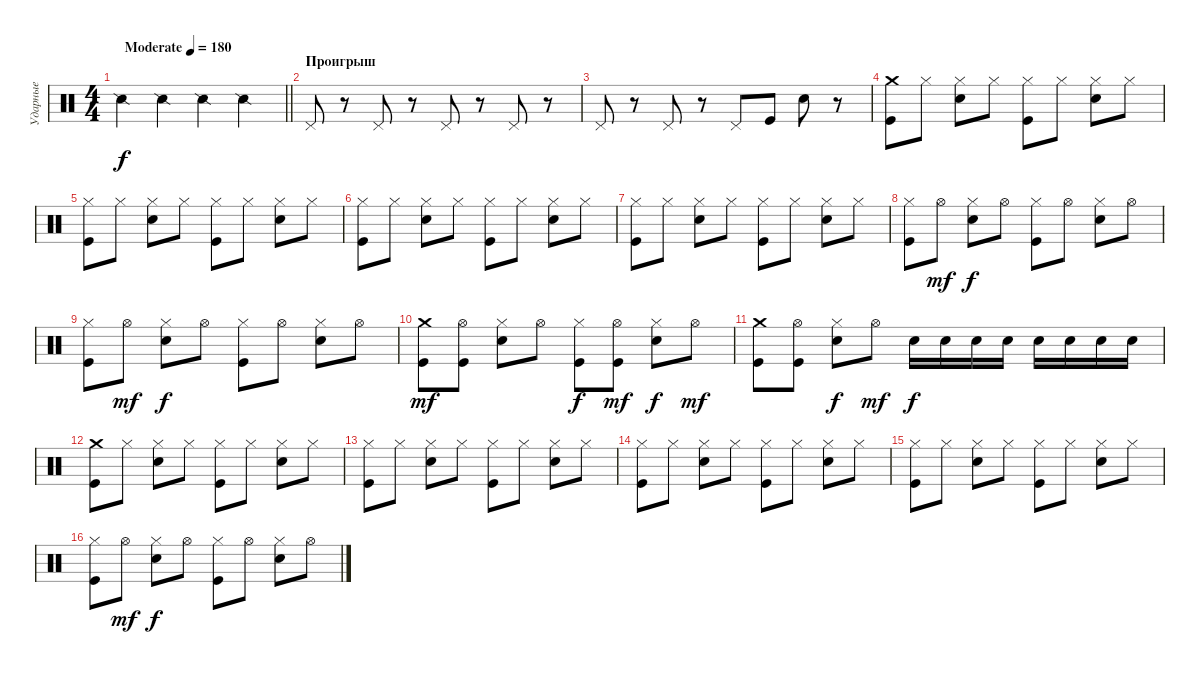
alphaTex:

\track ("Ударные" "Ударные") {instrument percussion}
\staff {score}
\articulation defaults
\ts (4 4)
\tempo (180 "Moderate")
\clef neutral
\barLineRight lightlight
\ks c "Snare (side stick) 2".4{dy f} "Snare (side stick) 2".4 "Snare (side stick) 2".4 "Snare (side stick) 2".4
|
\section ("" "Проигрыш")
"Pedal Hi-Hat (hit)".8 r.8 "Pedal Hi-Hat (hit)".8 r.8 "Pedal Hi-Hat (hit)".8 r.8 "Pedal Hi-Hat (hit)".8 r.8 |
"Pedal Hi-Hat (hit)".8 r.8 "Pedal Hi-Hat (hit)".8 r.8 "Pedal Hi-Hat (hit)".8 "Kick (hit)".8 "Electric Snare (hit)".8 r.8 |
("Crash medium (hit)" "Kick (hit)").8 "Hi-Hat (closed)".8 ("Hi-Hat (closed)" "Electric Snare (hit)").8 "Hi-Hat (closed)".8 ("Hi-Hat (closed)" "Kick (hit)").8 "Hi-Hat (closed)".8 ("Hi-Hat (closed)" "Electric Snare (hit)").8 "Hi-Hat (closed)".8 |
("Hi-Hat (closed)" "Kick (hit)").8 "Hi-Hat (closed)".8 ("Hi-Hat (closed)" "Electric Snare (hit)").8 "Hi-Hat (closed)".8 ("Hi-Hat (closed)" "Kick (hit)").8 "Hi-Hat (closed)".8 ("Hi-Hat (closed)" "Electric Snare (hit)").8 "Hi-Hat (closed)".8 |
("Hi-Hat (closed)" "Kick (hit)").8 "Hi-Hat (closed)".8 ("Hi-Hat (closed)" "Electric Snare (hit)").8 "Hi-Hat (closed)".8 ("Hi-Hat (closed)" "Kick (hit)").8 "Hi-Hat (closed)".8 ("Hi-Hat (closed)" "Electric Snare (hit)").8 "Hi-Hat (closed)".8 |
("Hi-Hat (closed)" "Kick (hit)").8 "Hi-Hat (closed)".8 ("Hi-Hat (closed)" "Electric Snare (hit)").8 "Hi-Hat (closed)".8 ("Hi-Hat (closed)" "Kick (hit)").8 "Hi-Hat (closed)".8 ("Hi-Hat (closed)" "Electric Snare (hit)").8 "Hi-Hat (closed)".8 |
("Hi-Hat (closed)" "Kick (hit)").8 "Hi-Hat (open)".8{dy mf} ("Hi-Hat (closed)" "Electric Snare (hit)").8{dy f} "Hi-Hat (open)".8 ("Hi-Hat (closed)" "Kick (hit)").8 "Hi-Hat (open)".8 ("Hi-Hat (closed)" "Electric Snare (hit)").8 "Hi-Hat (open)".8 |
("Hi-Hat (closed)" "Kick (hit)").8 "Hi-Hat (open)".8{dy mf} ("Hi-Hat (closed)" "Electric Snare (hit)").8{dy f} "Hi-Hat (open)".8 ("Hi-Hat (closed)" "Kick (hit)").8 "Hi-Hat (open)".8 ("Hi-Hat (closed)" "Electric Snare (hit)").8 "Hi-Hat (open)".8 |
("Crash medium (hit)" "Kick (hit)").8{dy mf} ("Hi-Hat (open)" "Kick (hit)").8 ("Hi-Hat (closed)" "Electric Snare (hit)").8 "Hi-Hat (open)".8 ("Hi-Hat (closed)" "Kick (hit)").8{dy f} ("Hi-Hat (open)" "Kick (hit)").8{dy mf} ("Hi-Hat (closed)" "Electric Snare (hit)").8{dy f} "Hi-Hat (open)".8{dy mf} |
("Crash medium (hit)" "Kick (hit)").8 ("Hi-Hat (open)" "Kick (hit)").8 ("Hi-Hat (closed)" "Electric Snare (hit)").8{dy f} "Hi-Hat (open)".8{dy mf} "Electric Snare (hit)".16{dy f} "Electric Snare (hit)".16 "Electric Snare (hit)".16 "Electric Snare (hit)".16 "Electric Snare (hit)".16 "Electric Snare (hit)".16 "Electric Snare (hit)".16 "Electric Snare (hit)".16 |
("Crash medium (hit)" "Kick (hit)").8 "Hi-Hat (closed)".8 ("Hi-Hat (closed)" "Electric Snare (hit)").8 "Hi-Hat (closed)".8 ("Hi-Hat (closed)" "Kick (hit)").8 "Hi-Hat (closed)".8 ("Hi-Hat (closed)" "Electric Snare (hit)").8 "Hi-Hat (closed)".8 |
("Hi-Hat (closed)" "Kick (hit)").8 "Hi-Hat (closed)".8 ("Hi-Hat (closed)" "Electric Snare (hit)").8 "Hi-Hat (closed)".8 ("Hi-Hat (closed)" "Kick (hit)").8 "Hi-Hat (closed)".8 ("Hi-Hat (closed)" "Electric Snare (hit)").8 "Hi-Hat (closed)".8 |
("Hi-Hat (closed)" "Kick (hit)").8 "Hi-Hat (closed)".8 ("Hi-Hat (closed)" "Electric Snare (hit)").8 "Hi-Hat (closed)".8 ("Hi-Hat (closed)" "Kick (hit)").8 "Hi-Hat (closed)".8 ("Hi-Hat (closed)" "Electric Snare (hit)").8 "Hi-Hat (closed)".8 |
("Hi-Hat (closed)" "Kick (hit)").8 "Hi-Hat (closed)".8 ("Hi-Hat (closed)" "Electric Snare (hit)").8 "Hi-Hat (closed)".8 ("Hi-Hat (closed)" "Kick (hit)").8 "Hi-Hat (closed)".8 ("Hi-Hat (closed)" "Electric Snare (hit)").8 "Hi-Hat (closed)".8 |
("Hi-Hat (closed)" "Kick (hit)").8 "Hi-Hat (open)".8{dy mf} ("Hi-Hat (closed)" "Electric Snare (hit)").8{dy f} "Hi-Hat (open)".8 ("Hi-Hat (closed)" "Kick (hit)").8 "Hi-Hat (open)".8 ("Hi-Hat (closed)" "Electric Snare (hit)").8 "Hi-Hat (open)".8
